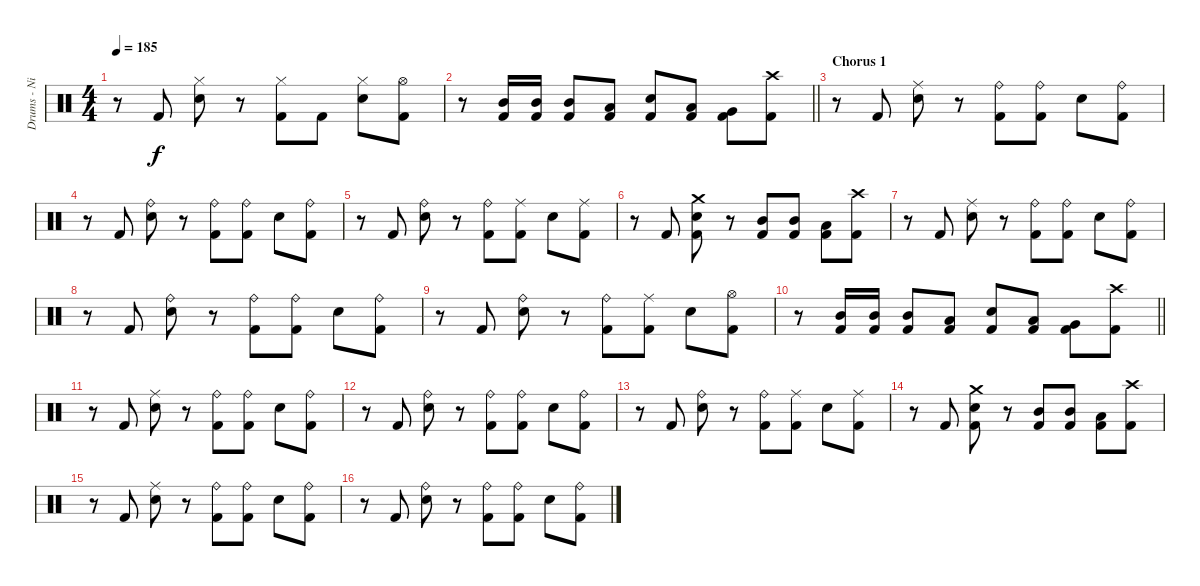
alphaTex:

\track ("Drums - Nicko" "Drums - Ni") {instrument percussion}
\staff {score}
\articulation defaults
\ts (4 4)
\tempo 185
\clef neutral
\ks c
r.8{dy f} "Kick (hit) 2".8 ("Hi-Hat (closed)" "Snare (hit) 2").8 r.8 ("Hi-Hat (closed)" "Kick (hit) 2").8 "Kick (hit) 2".8 ("Hi-Hat (closed)" "Snare (hit) 2").8 ("Hi-Hat (open)" "Kick (hit) 2").8 |
\barLineRight lightlight
r.8 ("Mid Tom (hit)" "Kick (hit) 2").16 ("Mid Tom (hit)" "Kick (hit) 2").16 ("Mid Tom (hit)" "Kick (hit) 2").8 ("Low Tom (hit)" "Kick (hit) 2").8 ("Snare (hit) 2" "Kick (hit) 2").8 ("Low Tom (hit)" "Kick (hit) 2").8 ("Very Low Tom (hit)" "Kick (hit) 2").8 ("Crash high (hit)" "Kick (hit) 2").8 |
\section ("" "Chorus 1")
r.8 "Kick (hit) 2".8 ("Ride (middle)" "Snare (hit) 2").8 r.8 ("Ride (bell)" "Kick (hit) 2").8 ("Ride (bell)" "Kick (hit) 2").8 "Snare (hit) 2".8 ("Ride (bell)" "Kick (hit) 2").8 |
r.8 "Kick (hit) 2".8 ("Ride (bell)" "Snare (hit) 2").8 r.8 ("Ride (bell)" "Kick (hit) 2").8 ("Ride (bell)" "Kick (hit) 2").8 "Snare (hit) 2".8 ("Ride (bell)" "Kick (hit) 2").8 |
r.8 "Kick (hit) 2".8 ("Ride (bell)" "Snare (hit) 2").8 r.8 ("Ride (bell)" "Kick (hit) 2").8 ("Ride (middle)" "Kick (hit) 2").8 "Snare (hit) 2".8 ("Ride (middle)" "Kick (hit) 2").8 |
r.8 "Kick (hit) 2".8 ("Crash medium (hit)" "Snare (hit) 2" "Kick (hit) 2").8 r.8 ("Mid Tom (hit)" "Kick (hit) 2").8 ("Mid Tom (hit)" "Kick (hit) 2").8 ("Low Tom (hit)" "Kick (hit) 2").8 ("Crash high (hit)" "Kick (hit) 2").8 |
r.8 "Kick (hit) 2".8 ("Ride (middle)" "Snare (hit) 2").8 r.8 ("Ride (bell)" "Kick (hit) 2").8 ("Ride (bell)" "Kick (hit) 2").8 "Snare (hit) 2".8 ("Ride (bell)" "Kick (hit) 2").8 |
r.8 "Kick (hit) 2".8 ("Ride (bell)" "Snare (hit) 2").8 r.8 ("Ride (bell)" "Kick (hit) 2").8 ("Ride (bell)" "Kick (hit) 2").8 "Snare (hit) 2".8 ("Ride (bell)" "Kick (hit) 2").8 |
r.8 "Kick (hit) 2".8 ("Ride (bell)" "Snare (hit) 2").8 r.8 ("Ride (bell)" "Kick (hit) 2").8 ("Ride (middle)" "Kick (hit) 2").8 "Snare (hit) 2".8 ("Hi-Hat (open)" "Kick (hit) 2").8 |
\barLineRight lightlight
r.8 ("Mid Tom (hit)" "Kick (hit) 2").16 ("Mid Tom (hit)" "Kick (hit) 2").16 ("Mid Tom (hit)" "Kick (hit) 2").8 ("Low Tom (hit)" "Kick (hit) 2").8 ("Snare (hit) 2" "Kick (hit) 2").8 ("Low Tom (hit)" "Kick (hit) 2").8 ("Very Low Tom (hit)" "Kick (hit) 2").8 ("Crash high (hit)" "Kick (hit) 2").8 |
\section ("" "")
r.8 "Kick (hit) 2".8 ("Ride (middle)" "Snare (hit) 2").8 r.8 ("Ride (bell)" "Kick (hit) 2").8 ("Ride (bell)" "Kick (hit) 2").8 "Snare (hit) 2".8 ("Ride (bell)" "Kick (hit) 2").8 |
r.8 "Kick (hit) 2".8 ("Ride (bell)" "Snare (hit) 2").8 r.8 ("Ride (bell)" "Kick (hit) 2").8 ("Ride (bell)" "Kick (hit) 2").8 "Snare (hit) 2".8 ("Ride (bell)" "Kick (hit) 2").8 |
r.8 "Kick (hit) 2".8 ("Ride (bell)" "Snare (hit) 2").8 r.8 ("Ride (bell)" "Kick (hit) 2").8 ("Ride (middle)" "Kick (hit) 2").8 "Snare (hit) 2".8 ("Ride (middle)" "Kick (hit) 2").8 |
r.8 "Kick (hit) 2".8 ("Crash medium (hit)" "Snare (hit) 2" "Kick (hit) 2").8 r.8 ("Mid Tom (hit)" "Kick (hit) 2").8 ("Mid Tom (hit)" "Kick (hit) 2").8 ("Low Tom (hit)" "Kick (hit) 2").8 ("Crash high (hit)" "Kick (hit) 2").8 |
r.8 "Kick (hit) 2".8 ("Ride (middle)" "Snare (hit) 2").8 r.8 ("Ride (bell)" "Kick (hit) 2").8 ("Ride (bell)" "Kick (hit) 2").8 "Snare (hit) 2".8 ("Ride (bell)" "Kick (hit) 2").8 |
r.8 "Kick (hit) 2".8 ("Ride (bell)" "Snare (hit) 2").8 r.8 ("Ride (bell)" "Kick (hit) 2").8 ("Ride (bell)" "Kick (hit) 2").8 "Snare (hit) 2".8 ("Ride (bell)" "Kick (hit) 2").8
